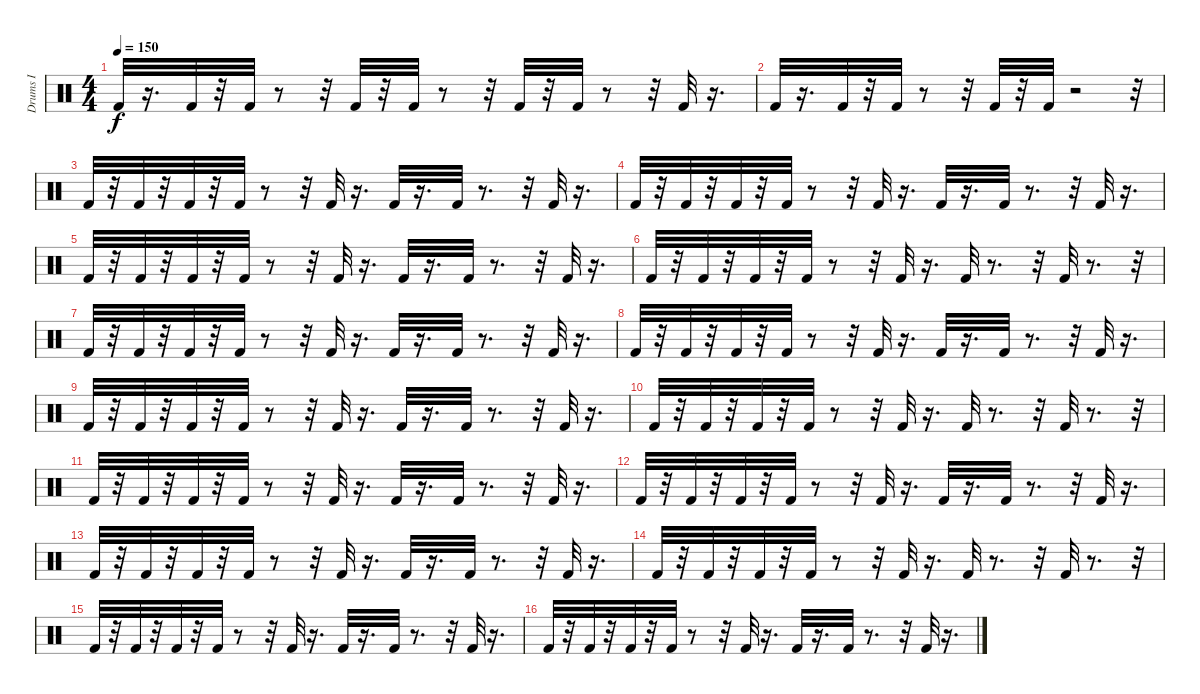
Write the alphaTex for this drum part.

\track ("Drums I" "Drums I") {instrument percussion}
\staff {score}
\articulation defaults
\ts (4 4)
\tempo 150
\clef neutral
\ks c "Kick (hit) 2".32{dy f}
r.16{d} "Kick (hit) 2".32 r.32 "Kick (hit) 2".32 r.8 r.32 "Kick (hit) 2".32 r.32 "Kick (hit) 2".32 r.8 r.32 "Kick (hit) 2".32 r.32 "Kick (hit) 2".32 r.8 r.32 "Kick (hit) 2".32 r.16{d} |
"Kick (hit) 2".32 r.16{d} "Kick (hit) 2".32 r.32 "Kick (hit) 2".32 r.8 r.32 "Kick (hit) 2".32 r.32 "Kick (hit) 2".32 r.2 r.32 |
"Kick (hit) 2".32 r.32 "Kick (hit) 2".32 r.32 "Kick (hit) 2".32 r.32 "Kick (hit) 2".32 r.8 r.32 "Kick (hit) 2".32 r.16{d} "Kick (hit) 2".32 r.16{d} "Kick (hit) 2".32 r.8{d} r.32 "Kick (hit) 2".32 r.16{d} |
"Kick (hit) 2".32 r.32 "Kick (hit) 2".32 r.32 "Kick (hit) 2".32 r.32 "Kick (hit) 2".32 r.8 r.32 "Kick (hit) 2".32 r.16{d} "Kick (hit) 2".32 r.16{d} "Kick (hit) 2".32 r.8{d} r.32 "Kick (hit) 2".32 r.16{d} |
"Kick (hit) 2".32 r.32 "Kick (hit) 2".32 r.32 "Kick (hit) 2".32 r.32 "Kick (hit) 2".32 r.8 r.32 "Kick (hit) 2".32 r.16{d} "Kick (hit) 2".32 r.16{d} "Kick (hit) 2".32 r.8{d} r.32 "Kick (hit) 2".32 r.16{d} |
"Kick (hit) 2".32 r.32 "Kick (hit) 2".32 r.32 "Kick (hit) 2".32 r.32 "Kick (hit) 2".32 r.8 r.32 "Kick (hit) 2".32 r.16{d} "Kick (hit) 2".32 r.8{d} r.32 "Kick (hit) 2".32 r.8{d} r.32 |
"Kick (hit) 2".32 r.32 "Kick (hit) 2".32 r.32 "Kick (hit) 2".32 r.32 "Kick (hit) 2".32 r.8 r.32 "Kick (hit) 2".32 r.16{d} "Kick (hit) 2".32 r.16{d} "Kick (hit) 2".32 r.8{d} r.32 "Kick (hit) 2".32 r.16{d} |
"Kick (hit) 2".32 r.32 "Kick (hit) 2".32 r.32 "Kick (hit) 2".32 r.32 "Kick (hit) 2".32 r.8 r.32 "Kick (hit) 2".32 r.16{d} "Kick (hit) 2".32 r.16{d} "Kick (hit) 2".32 r.8{d} r.32 "Kick (hit) 2".32 r.16{d} |
"Kick (hit) 2".32 r.32 "Kick (hit) 2".32 r.32 "Kick (hit) 2".32 r.32 "Kick (hit) 2".32 r.8 r.32 "Kick (hit) 2".32 r.16{d} "Kick (hit) 2".32 r.16{d} "Kick (hit) 2".32 r.8{d} r.32 "Kick (hit) 2".32 r.16{d} |
"Kick (hit) 2".32 r.32 "Kick (hit) 2".32 r.32 "Kick (hit) 2".32 r.32 "Kick (hit) 2".32 r.8 r.32 "Kick (hit) 2".32 r.16{d} "Kick (hit) 2".32 r.8{d} r.32 "Kick (hit) 2".32 r.8{d} r.32 |
"Kick (hit) 2".32 r.32 "Kick (hit) 2".32 r.32 "Kick (hit) 2".32 r.32 "Kick (hit) 2".32 r.8 r.32 "Kick (hit) 2".32 r.16{d} "Kick (hit) 2".32 r.16{d} "Kick (hit) 2".32 r.8{d} r.32 "Kick (hit) 2".32 r.16{d} |
"Kick (hit) 2".32 r.32 "Kick (hit) 2".32 r.32 "Kick (hit) 2".32 r.32 "Kick (hit) 2".32 r.8 r.32 "Kick (hit) 2".32 r.16{d} "Kick (hit) 2".32 r.16{d} "Kick (hit) 2".32 r.8{d} r.32 "Kick (hit) 2".32 r.16{d} |
"Kick (hit) 2".32 r.32 "Kick (hit) 2".32 r.32 "Kick (hit) 2".32 r.32 "Kick (hit) 2".32 r.8 r.32 "Kick (hit) 2".32 r.16{d} "Kick (hit) 2".32 r.16{d} "Kick (hit) 2".32 r.8{d} r.32 "Kick (hit) 2".32 r.16{d} |
"Kick (hit) 2".32 r.32 "Kick (hit) 2".32 r.32 "Kick (hit) 2".32 r.32 "Kick (hit) 2".32 r.8 r.32 "Kick (hit) 2".32 r.16{d} "Kick (hit) 2".32 r.8{d} r.32 "Kick (hit) 2".32 r.8{d} r.32 |
"Kick (hit) 2".32 r.32 "Kick (hit) 2".32 r.32 "Kick (hit) 2".32 r.32 "Kick (hit) 2".32 r.8 r.32 "Kick (hit) 2".32 r.16{d} "Kick (hit) 2".32 r.16{d} "Kick (hit) 2".32 r.8{d} r.32 "Kick (hit) 2".32 r.16{d} |
"Kick (hit) 2".32 r.32 "Kick (hit) 2".32 r.32 "Kick (hit) 2".32 r.32 "Kick (hit) 2".32 r.8 r.32 "Kick (hit) 2".32 r.16{d} "Kick (hit) 2".32 r.16{d} "Kick (hit) 2".32 r.8{d} r.32 "Kick (hit) 2".32 r.16{d}
